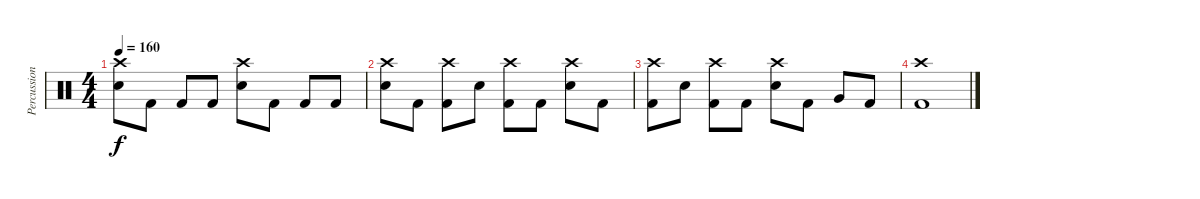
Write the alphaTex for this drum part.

\track ("Percussion" "Percussion") {instrument percussion}
\staff {score}
\articulation defaults
\ts (4 4)
\tempo 160
\clef neutral
\ks c
("Crash high (hit)" "Electric Snare (hit)").8{dy f} "Kick (hit) 2".8 "Kick (hit) 2".8 "Kick (hit) 2".8 ("Crash high (hit)" "Electric Snare (hit)").8 "Kick (hit) 2".8 "Kick (hit) 2".8 "Kick (hit) 2".8 |
("Crash high (hit)" "Electric Snare (hit)").8 "Kick (hit) 2".8 ("Crash high (hit)" "Kick (hit) 2").8 "Electric Snare (hit)".8 ("Crash high (hit)" "Kick (hit) 2").8 "Kick (hit) 2".8 ("Crash high (hit)" "Electric Snare (hit)").8 "Kick (hit) 2".8 |
("Crash high (hit)" "Kick (hit) 2").8 "Electric Snare (hit)".8 ("Crash high (hit)" "Kick (hit) 2").8 "Kick (hit) 2".8 ("Crash high (hit)" "Electric Snare (hit)").8 "Kick (hit) 2".8 "Very Low Tom (hit)".8 "Kick (hit) 2".8 |
("Crash high (hit)" "Kick (hit) 2").1
